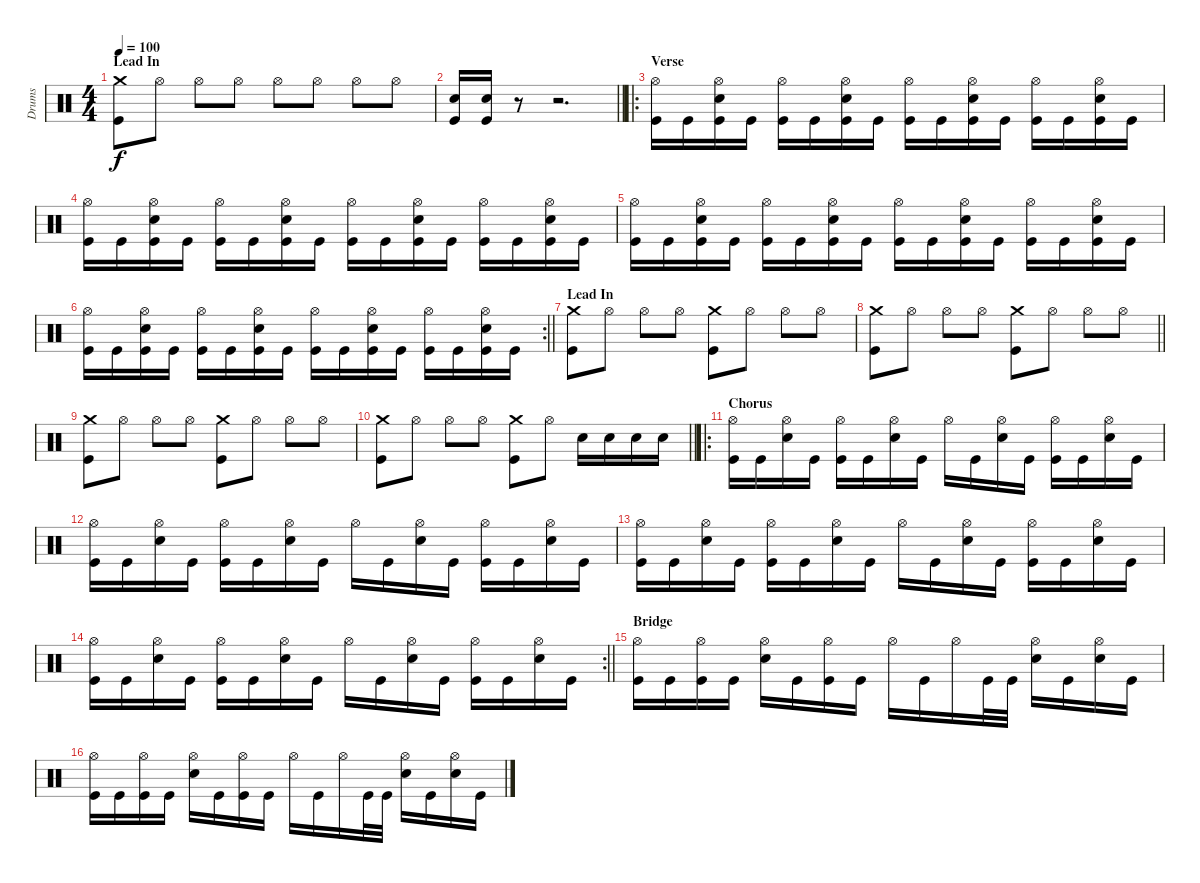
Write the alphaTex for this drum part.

\track ("Drums" "Drums") {instrument percussion}
\staff {score}
\articulation defaults
\ts (4 4)
\section ("" "Lead In")
\tempo 100
\clef neutral
\ks c
("Crash medium (hit)" "Kick (hit)").8{dy f} "Hi-Hat (open)".8 "Hi-Hat (open)".8 "Hi-Hat (open)".8 "Hi-Hat (open)".8 "Hi-Hat (open)".8 "Hi-Hat (open)".8 "Hi-Hat (open)".8 |
\barLineRight lightlight
("Snare (hit) 2" "Kick (hit)").16 ("Snare (hit) 2" "Kick (hit)").16 r.8 r.2{d} |
\ro
\section ("" "Verse")
("Hi-Hat (open)" "Kick (hit)").16 "Kick (hit)".16 ("Hi-Hat (open)" "Snare (hit) 2" "Kick (hit)").16 "Kick (hit)".16 ("Hi-Hat (open)" "Kick (hit)").16 "Kick (hit)".16 ("Hi-Hat (open)" "Snare (hit) 2" "Kick (hit)").16 "Kick (hit)".16 ("Hi-Hat (open)" "Kick (hit)").16 "Kick (hit)".16 ("Hi-Hat (open)" "Snare (hit) 2" "Kick (hit)").16 "Kick (hit)".16 ("Hi-Hat (open)" "Kick (hit)").16 "Kick (hit)".16 ("Hi-Hat (open)" "Snare (hit) 2" "Kick (hit)").16 "Kick (hit)".16 |
("Hi-Hat (open)" "Kick (hit)").16 "Kick (hit)".16 ("Hi-Hat (open)" "Snare (hit) 2" "Kick (hit)").16 "Kick (hit)".16 ("Hi-Hat (open)" "Kick (hit)").16 "Kick (hit)".16 ("Hi-Hat (open)" "Snare (hit) 2" "Kick (hit)").16 "Kick (hit)".16 ("Hi-Hat (open)" "Kick (hit)").16 "Kick (hit)".16 ("Hi-Hat (open)" "Snare (hit) 2" "Kick (hit)").16 "Kick (hit)".16 ("Hi-Hat (open)" "Kick (hit)").16 "Kick (hit)".16 ("Hi-Hat (open)" "Snare (hit) 2" "Kick (hit)").16 "Kick (hit)".16 |
("Hi-Hat (open)" "Kick (hit)").16 "Kick (hit)".16 ("Hi-Hat (open)" "Snare (hit) 2" "Kick (hit)").16 "Kick (hit)".16 ("Hi-Hat (open)" "Kick (hit)").16 "Kick (hit)".16 ("Hi-Hat (open)" "Snare (hit) 2" "Kick (hit)").16 "Kick (hit)".16 ("Hi-Hat (open)" "Kick (hit)").16 "Kick (hit)".16 ("Hi-Hat (open)" "Snare (hit) 2" "Kick (hit)").16 "Kick (hit)".16 ("Hi-Hat (open)" "Kick (hit)").16 "Kick (hit)".16 ("Hi-Hat (open)" "Snare (hit) 2" "Kick (hit)").16 "Kick (hit)".16 |
\rc 2
\barLineRight lightlight
("Hi-Hat (open)" "Kick (hit)").16 "Kick (hit)".16 ("Hi-Hat (open)" "Snare (hit) 2" "Kick (hit)").16 "Kick (hit)".16 ("Hi-Hat (open)" "Kick (hit)").16 "Kick (hit)".16 ("Hi-Hat (open)" "Snare (hit) 2" "Kick (hit)").16 "Kick (hit)".16 ("Hi-Hat (open)" "Kick (hit)").16 "Kick (hit)".16 ("Hi-Hat (open)" "Snare (hit) 2" "Kick (hit)").16 "Kick (hit)".16 ("Hi-Hat (open)" "Kick (hit)").16 "Kick (hit)".16 ("Hi-Hat (open)" "Snare (hit) 2" "Kick (hit)").16 "Kick (hit)".16 |
\section ("" "Lead In")
("Crash medium (hit)" "Kick (hit)").8 "Hi-Hat (open)".8 "Hi-Hat (open)".8 "Hi-Hat (open)".8 ("Crash medium (hit)" "Kick (hit)").8 "Hi-Hat (open)".8 "Hi-Hat (open)".8 "Hi-Hat (open)".8 |
\barLineRight lightlight
("Crash medium (hit)" "Kick (hit)").8 "Hi-Hat (open)".8 "Hi-Hat (open)".8 "Hi-Hat (open)".8 ("Crash medium (hit)" "Kick (hit)").8 "Hi-Hat (open)".8 "Hi-Hat (open)".8 "Hi-Hat (open)".8 |
("Crash medium (hit)" "Kick (hit)").8 "Hi-Hat (open)".8 "Hi-Hat (open)".8 "Hi-Hat (open)".8 ("Crash medium (hit)" "Kick (hit)").8 "Hi-Hat (open)".8 "Hi-Hat (open)".8 "Hi-Hat (open)".8 |
\barLineRight lightlight
("Crash medium (hit)" "Kick (hit)").8 "Hi-Hat (open)".8 "Hi-Hat (open)".8 "Hi-Hat (open)".8 ("Crash medium (hit)" "Kick (hit)").8 "Hi-Hat (open)".8 "Snare (hit) 2".16 "Snare (hit) 2".16 "Snare (hit) 2".16 "Snare (hit) 2".16 |
\ro
\section ("" "Chorus")
("Hi-Hat (open)" "Kick (hit)").16 "Kick (hit)".16 ("Hi-Hat (open)" "Snare (hit) 2").16 "Kick (hit)".16 ("Hi-Hat (open)" "Kick (hit)").16 "Kick (hit)".16 ("Hi-Hat (open)" "Snare (hit) 2").16 "Kick (hit)".16 "Hi-Hat (open)".16 "Kick (hit)".16 ("Hi-Hat (open)" "Snare (hit) 2").16 "Kick (hit)".16 ("Hi-Hat (open)" "Kick (hit)").16 "Kick (hit)".16 ("Hi-Hat (open)" "Snare (hit) 2").16 "Kick (hit)".16 |
("Hi-Hat (open)" "Kick (hit)").16 "Kick (hit)".16 ("Hi-Hat (open)" "Snare (hit) 2").16 "Kick (hit)".16 ("Hi-Hat (open)" "Kick (hit)").16 "Kick (hit)".16 ("Hi-Hat (open)" "Snare (hit) 2").16 "Kick (hit)".16 "Hi-Hat (open)".16 "Kick (hit)".16 ("Hi-Hat (open)" "Snare (hit) 2").16 "Kick (hit)".16 ("Hi-Hat (open)" "Kick (hit)").16 "Kick (hit)".16 ("Hi-Hat (open)" "Snare (hit) 2").16 "Kick (hit)".16 |
("Hi-Hat (open)" "Kick (hit)").16 "Kick (hit)".16 ("Hi-Hat (open)" "Snare (hit) 2").16 "Kick (hit)".16 ("Hi-Hat (open)" "Kick (hit)").16 "Kick (hit)".16 ("Hi-Hat (open)" "Snare (hit) 2").16 "Kick (hit)".16 "Hi-Hat (open)".16 "Kick (hit)".16 ("Hi-Hat (open)" "Snare (hit) 2").16 "Kick (hit)".16 ("Hi-Hat (open)" "Kick (hit)").16 "Kick (hit)".16 ("Hi-Hat (open)" "Snare (hit) 2").16 "Kick (hit)".16 |
\rc 2
\barLineRight lightlight
("Hi-Hat (open)" "Kick (hit)").16 "Kick (hit)".16 ("Hi-Hat (open)" "Snare (hit) 2").16 "Kick (hit)".16 ("Hi-Hat (open)" "Kick (hit)").16 "Kick (hit)".16 ("Hi-Hat (open)" "Snare (hit) 2").16 "Kick (hit)".16 "Hi-Hat (open)".16 "Kick (hit)".16 ("Hi-Hat (open)" "Snare (hit) 2").16 "Kick (hit)".16 ("Hi-Hat (open)" "Kick (hit)").16 "Kick (hit)".16 ("Hi-Hat (open)" "Snare (hit) 2").16 "Kick (hit)".16 |
\section ("" "Bridge")
("Hi-Hat (open)" "Kick (hit)").16 "Kick (hit)".16 ("Hi-Hat (open)" "Kick (hit)").16 "Kick (hit)".16 ("Hi-Hat (open)" "Snare (hit) 2").16 "Kick (hit)".16 ("Hi-Hat (open)" "Kick (hit)").16 "Kick (hit)".16 "Hi-Hat (open)".16 "Kick (hit)".16 "Hi-Hat (open)".16 "Kick (hit)".32 "Kick (hit)".32 ("Hi-Hat (open)" "Snare (hit) 2").16 "Kick (hit)".16 ("Hi-Hat (open)" "Snare (hit) 2").16 "Kick (hit)".16 |
("Hi-Hat (open)" "Kick (hit)").16 "Kick (hit)".16 ("Hi-Hat (open)" "Kick (hit)").16 "Kick (hit)".16 ("Hi-Hat (open)" "Snare (hit) 2").16 "Kick (hit)".16 ("Hi-Hat (open)" "Kick (hit)").16 "Kick (hit)".16 "Hi-Hat (open)".16 "Kick (hit)".16 "Hi-Hat (open)".16 "Kick (hit)".32 "Kick (hit)".32 ("Hi-Hat (open)" "Snare (hit) 2").16 "Kick (hit)".16 ("Hi-Hat (open)" "Snare (hit) 2").16 "Kick (hit)".16
